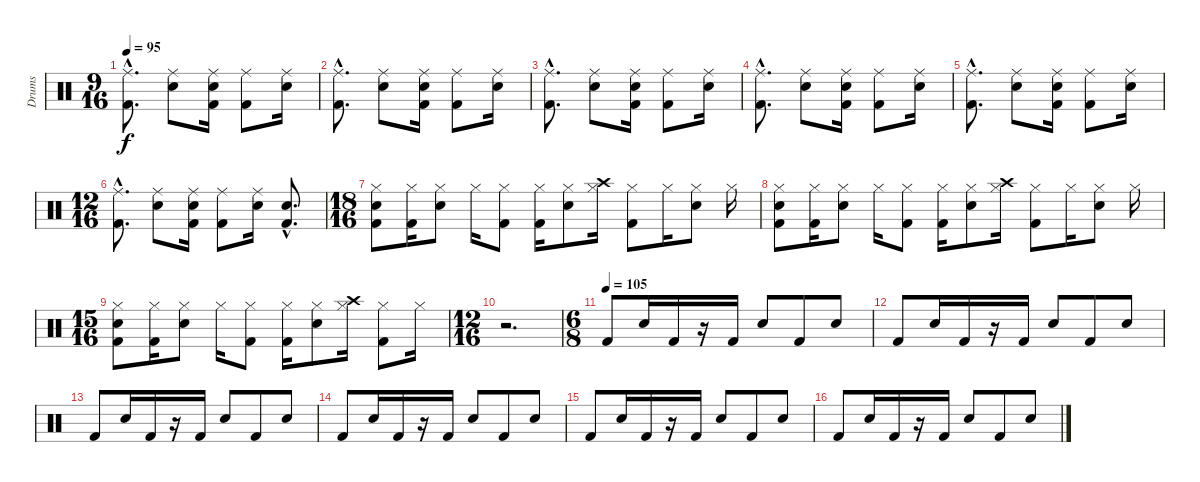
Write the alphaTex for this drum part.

\track ("Drums" "Drums") {instrument percussion}
\staff {score}
\articulation defaults
\ts (9 16)
\tempo 95
\clef neutral
\ks c
("Kick (hit) 2"{hac} "Ride (middle)"{hac}).8{d dy f} ("Snare (hit) 2" "Ride (middle)").8 ("Kick (hit) 2" "Snare (hit) 2" "Ride (middle)").16 ("Kick (hit) 2" "Ride (middle)").8 ("Snare (hit) 2" "Ride (middle)").16 |
("Kick (hit) 2"{hac} "Ride (middle)"{hac}).8{d} ("Snare (hit) 2" "Ride (middle)").8 ("Kick (hit) 2" "Snare (hit) 2" "Ride (middle)").16 ("Kick (hit) 2" "Ride (middle)").8 ("Snare (hit) 2" "Ride (middle)").16 |
("Kick (hit) 2"{hac} "Ride (middle)"{hac}).8{d} ("Snare (hit) 2" "Ride (middle)").8 ("Kick (hit) 2" "Snare (hit) 2" "Ride (middle)").16 ("Kick (hit) 2" "Ride (middle)").8 ("Snare (hit) 2" "Ride (middle)").16 |
("Kick (hit) 2"{hac} "Ride (middle)"{hac}).8{d} ("Snare (hit) 2" "Ride (middle)").8 ("Kick (hit) 2" "Snare (hit) 2" "Ride (middle)").16 ("Kick (hit) 2" "Ride (middle)").8 ("Snare (hit) 2" "Ride (middle)").16 |
("Kick (hit) 2"{hac} "Ride (middle)"{hac}).8{d} ("Snare (hit) 2" "Ride (middle)").8 ("Kick (hit) 2" "Snare (hit) 2" "Ride (middle)").16 ("Kick (hit) 2" "Ride (middle)").8 ("Snare (hit) 2" "Ride (middle)").16 |
\ts (12 16)
("Kick (hit) 2"{hac} "Ride (middle)"{hac}).8{d} ("Snare (hit) 2" "Ride (middle)").8 ("Kick (hit) 2" "Snare (hit) 2" "Ride (middle)").16 ("Kick (hit) 2" "Ride (middle)").8 ("Snare (hit) 2" "Ride (middle)").16 ("Kick (hit) 2"{hac} "Snare (hit) 2"{hac}).8{d} |
\ts (18 16)
("Hi-Hat (closed)" "Snare (hit) 2" "Kick (hit) 2").8 ("Hi-Hat (closed)" "Kick (hit) 2").16 ("Hi-Hat (closed)" "Snare (hit) 2").8 "Hi-Hat (closed)".16 ("Hi-Hat (closed)" "Kick (hit) 2").8 ("Hi-Hat (closed)" "Kick (hit) 2").16 ("Hi-Hat (closed)" "Snare (hit) 2").8 ("Crash high (hit)" "Hi-Hat (closed)").16 ("Hi-Hat (closed)" "Kick (hit) 2").8 "Hi-Hat (closed)".16 ("Hi-Hat (closed)" "Snare (hit) 2").8 "Hi-Hat (closed)".16 |
("Hi-Hat (closed)" "Snare (hit) 2" "Kick (hit) 2").8 ("Hi-Hat (closed)" "Kick (hit) 2").16 ("Hi-Hat (closed)" "Snare (hit) 2").8 "Hi-Hat (closed)".16 ("Hi-Hat (closed)" "Kick (hit) 2").8 ("Hi-Hat (closed)" "Kick (hit) 2").16 ("Hi-Hat (closed)" "Snare (hit) 2").8 ("Crash high (hit)" "Hi-Hat (closed)").16 ("Hi-Hat (closed)" "Kick (hit) 2").8 "Hi-Hat (closed)".16 ("Hi-Hat (closed)" "Snare (hit) 2").8 "Hi-Hat (closed)".16 |
\ts (15 16)
("Hi-Hat (closed)" "Snare (hit) 2" "Kick (hit) 2").8 ("Hi-Hat (closed)" "Kick (hit) 2").16 ("Hi-Hat (closed)" "Snare (hit) 2").8 "Hi-Hat (closed)".16 ("Hi-Hat (closed)" "Kick (hit) 2").8 ("Hi-Hat (closed)" "Kick (hit) 2").16 ("Hi-Hat (closed)" "Snare (hit) 2").8 ("Crash high (hit)" "Hi-Hat (closed)").16 ("Hi-Hat (closed)" "Kick (hit) 2").8 "Hi-Hat (closed)".16 |
\ts (12 16)
r.2{d} |
\ts (6 8)
\tempo (105)
"Kick (hit) 2".8 "Snare (hit) 2".16 "Kick (hit) 2".16 r.16 "Kick (hit) 2".16 "Snare (hit) 2".8 "Kick (hit) 2".8 "Snare (hit) 2".8 |
"Kick (hit) 2".8 "Snare (hit) 2".16 "Kick (hit) 2".16 r.16 "Kick (hit) 2".16 "Snare (hit) 2".8 "Kick (hit) 2".8 "Snare (hit) 2".8 |
"Kick (hit) 2".8 "Snare (hit) 2".16 "Kick (hit) 2".16 r.16 "Kick (hit) 2".16 "Snare (hit) 2".8 "Kick (hit) 2".8 "Snare (hit) 2".8 |
"Kick (hit) 2".8 "Snare (hit) 2".16 "Kick (hit) 2".16 r.16 "Kick (hit) 2".16 "Snare (hit) 2".8 "Kick (hit) 2".8 "Snare (hit) 2".8 |
"Kick (hit) 2".8 "Snare (hit) 2".16 "Kick (hit) 2".16 r.16 "Kick (hit) 2".16 "Snare (hit) 2".8 "Kick (hit) 2".8 "Snare (hit) 2".8 |
"Kick (hit) 2".8 "Snare (hit) 2".16 "Kick (hit) 2".16 r.16 "Kick (hit) 2".16 "Snare (hit) 2".8 "Kick (hit) 2".8 "Snare (hit) 2".8
